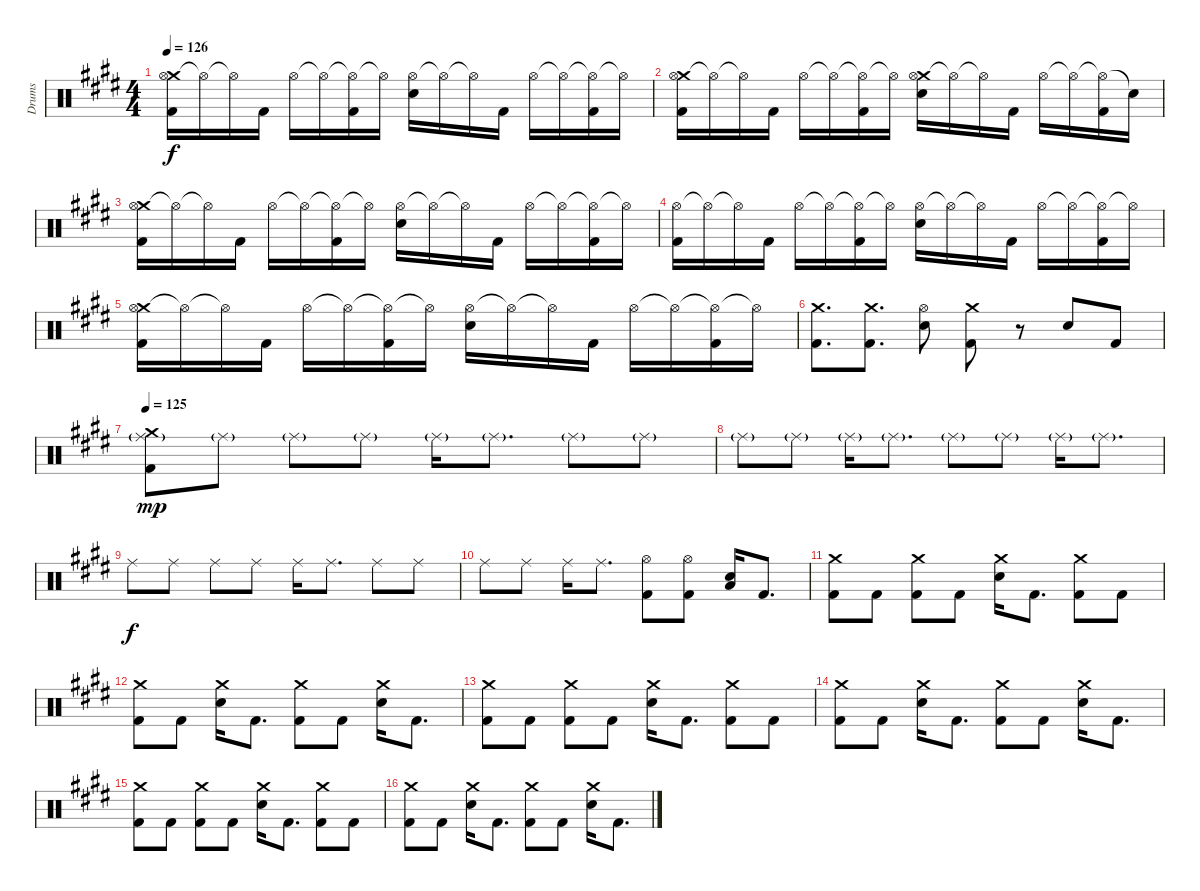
\track ("Drums" "Drums") {instrument percussion}
\staff {score}
\articulation defaults
\ts (4 4)
\tempo 126
\clef neutral
\ks e
("Crash medium (hit)" "Hi-Hat (open)" "Kick (hit) 2").16{dy f} "Hi-Hat (open)"{t}.16 "Hi-Hat (open)"{t}.16 "Kick (hit) 2".16 "Hi-Hat (open)".16 "Hi-Hat (open)"{t}.16 ("Hi-Hat (open)"{t} "Kick (hit) 2").16 "Hi-Hat (open)"{t}.16 ("Hi-Hat (open)" "Snare (hit) 2").16 "Hi-Hat (open)"{t}.16 "Hi-Hat (open)"{t}.16 "Kick (hit) 2".16 "Hi-Hat (open)".16 "Hi-Hat (open)"{t}.16 ("Hi-Hat (open)"{t} "Kick (hit) 2").16 "Hi-Hat (open)"{t}.16 |
("Crash medium (hit)" "Hi-Hat (open)" "Kick (hit) 2").16 "Hi-Hat (open)"{t}.16 "Hi-Hat (open)"{t}.16 "Kick (hit) 2".16 "Hi-Hat (open)".16 "Hi-Hat (open)"{t}.16 ("Hi-Hat (open)"{t} "Kick (hit) 2").16 "Hi-Hat (open)"{t}.16 ("Crash medium (hit)" "Hi-Hat (open)" "Snare (hit) 2").16 "Hi-Hat (open)"{t}.16 "Hi-Hat (open)"{t}.16 "Kick (hit) 2".16 "Hi-Hat (open)".16 "Hi-Hat (open)"{t}.16 ("Hi-Hat (open)"{t} "Kick (hit) 2").16 "Snare (hit)"{t}.16 |
("Crash medium (hit)" "Hi-Hat (open)" "Kick (hit) 2").16 "Hi-Hat (open)"{t}.16 "Hi-Hat (open)"{t}.16 "Kick (hit) 2".16 "Hi-Hat (open)".16 "Hi-Hat (open)"{t}.16 ("Hi-Hat (open)"{t} "Kick (hit) 2").16 "Hi-Hat (open)"{t}.16 ("Hi-Hat (open)" "Snare (hit) 2").16 "Hi-Hat (open)"{t}.16 "Hi-Hat (open)"{t}.16 "Kick (hit) 2".16 "Hi-Hat (open)".16 "Hi-Hat (open)"{t}.16 ("Hi-Hat (open)"{t} "Kick (hit) 2").16 "Hi-Hat (open)"{t}.16 |
("Hi-Hat (open)" "Kick (hit) 2").16 "Hi-Hat (open)"{t}.16 "Hi-Hat (open)"{t}.16 "Kick (hit) 2".16 "Hi-Hat (open)".16 "Hi-Hat (open)"{t}.16 ("Hi-Hat (open)"{t} "Kick (hit) 2").16 "Hi-Hat (open)"{t}.16 ("Hi-Hat (open)" "Snare (hit) 2").16 "Hi-Hat (open)"{t}.16 "Hi-Hat (open)"{t}.16 "Kick (hit) 2".16 "Hi-Hat (open)".16 "Hi-Hat (open)"{t}.16 ("Hi-Hat (open)"{t} "Kick (hit) 2").16 "Hi-Hat (open)"{t}.16 |
("Crash medium (hit)" "Hi-Hat (open)" "Kick (hit) 2").16 "Hi-Hat (open)"{t}.16 "Hi-Hat (open)"{t}.16 "Kick (hit) 2".16 "Hi-Hat (open)".16 "Hi-Hat (open)"{t}.16 ("Hi-Hat (open)"{t} "Kick (hit) 2").16 "Hi-Hat (open)"{t}.16 ("Hi-Hat (open)" "Snare (hit) 2").16 "Hi-Hat (open)"{t}.16 "Hi-Hat (open)"{t}.16 "Kick (hit) 2".16 "Hi-Hat (open)".16 "Hi-Hat (open)"{t}.16 ("Hi-Hat (open)"{t} "Kick (hit) 2").16 "Hi-Hat (open)"{t}.16 |
("Crash medium (hit)" "Kick (hit) 2").8{d} ("Crash medium (hit)" "Kick (hit) 2").8{d} ("Hi-Hat (open)" "Snare (hit) 2").8 ("Crash medium (hit)" "Kick (hit) 2").8 r.8 "Snare (hit) 2".8 "Kick (hit) 2".8 |
\tempo 125
("Ride (middle)"{g} "Crash medium (hit)" "Kick (hit) 2").8{dy mp} "Ride (middle)"{g}.8 "Ride (middle)"{g}.8 "Ride (middle)"{g}.8 "Ride (middle)"{g}.16 "Ride (middle)"{g}.8{d} "Ride (middle)"{g}.8 "Ride (middle)"{g}.8 |
"Ride (middle)"{g}.8 "Ride (middle)"{g}.8 "Ride (middle)"{g}.16 "Ride (middle)"{g}.8{d} "Ride (middle)"{g}.8 "Ride (middle)"{g}.8 "Ride (middle)"{g}.16 "Ride (middle)"{g}.8{d} |
"Ride (middle)".8{dy f} "Ride (middle)".8 "Ride (middle)".8 "Ride (middle)".8 "Ride (middle)".16 "Ride (middle)".8{d} "Ride (middle)".8 "Ride (middle)".8 |
"Ride (middle)".8 "Ride (middle)".8 "Ride (middle)".16 "Ride (middle)".8{d} ("Hi-Hat (open)" "Kick (hit) 2").8 ("Hi-Hat (open)" "Kick (hit) 2").8 ("Low Floor Tom (hit)" "Snare (hit) 2").16 "Kick (hit) 2".8{d} |
("Crash medium (hit)" "Kick (hit) 2").8 "Kick (hit) 2".8 ("Crash medium (hit)" "Kick (hit) 2").8 "Kick (hit) 2".8 ("Crash medium (hit)" "Snare (hit) 2").16 "Kick (hit) 2".8{d} ("Crash medium (hit)" "Kick (hit) 2").8 "Kick (hit) 2".8 |
("Crash medium (hit)" "Kick (hit) 2").8 "Kick (hit) 2".8 ("Crash medium (hit)" "Snare (hit) 2").16 "Kick (hit) 2".8{d} ("Crash medium (hit)" "Kick (hit) 2").8 "Kick (hit) 2".8 ("Crash medium (hit)" "Snare (hit) 2").16 "Kick (hit) 2".8{d} |
("Crash medium (hit)" "Kick (hit) 2").8 "Kick (hit) 2".8 ("Crash medium (hit)" "Kick (hit) 2").8 "Kick (hit) 2".8 ("Crash medium (hit)" "Snare (hit) 2").16 "Kick (hit) 2".8{d} ("Crash medium (hit)" "Kick (hit) 2").8 "Kick (hit) 2".8 |
("Crash medium (hit)" "Kick (hit) 2").8 "Kick (hit) 2".8 ("Crash medium (hit)" "Snare (hit) 2").16 "Kick (hit) 2".8{d} ("Crash medium (hit)" "Kick (hit) 2").8 "Kick (hit) 2".8 ("Crash medium (hit)" "Snare (hit) 2").16 "Kick (hit) 2".8{d} |
("Crash medium (hit)" "Kick (hit) 2").8 "Kick (hit) 2".8 ("Crash medium (hit)" "Kick (hit) 2").8 "Kick (hit) 2".8 ("Crash medium (hit)" "Snare (hit) 2").16 "Kick (hit) 2".8{d} ("Crash medium (hit)" "Kick (hit) 2").8 "Kick (hit) 2".8 |
("Crash medium (hit)" "Kick (hit) 2").8 "Kick (hit) 2".8 ("Crash medium (hit)" "Snare (hit) 2").16 "Kick (hit) 2".8{d} ("Crash medium (hit)" "Kick (hit) 2").8 "Kick (hit) 2".8 ("Crash medium (hit)" "Snare (hit) 2").16 "Kick (hit) 2".8{d}
